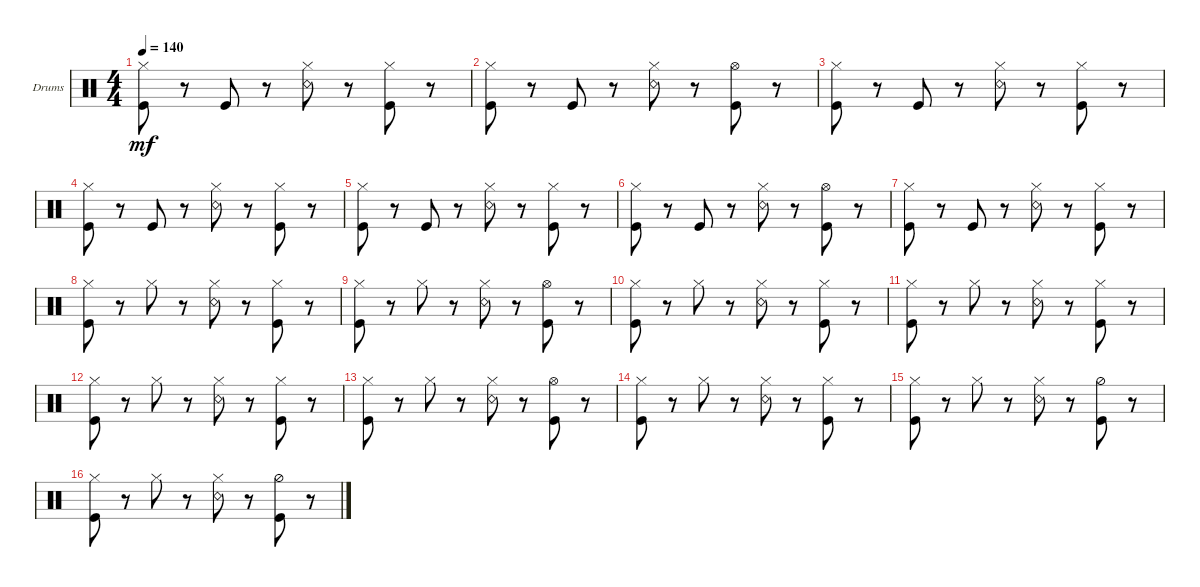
\defaultSystemsLayout 4
\bracketExtendMode groupsimilarinstruments
\firstSystemTrackNameOrientation horizontal
\otherSystemsTrackNameOrientation horizontal
\track ("Drumkit" "Drums") {instrument percussion}
\staff {score}
\articulation defaults
\ts (4 4)
\tempo 140
\clef neutral
\ks c
("Kick (hit)" "Hi-Hat (closed)").8{dy mf} r.8 "Kick (hit)".8 r.8 ("Hi-Hat (closed)" "Snare (rim shot)").8 r.8 ("Hi-Hat (closed)" "Kick (hit)").8 r.8 |
("Hi-Hat (closed)" "Kick (hit)").8 r.8 "Kick (hit)".8 r.8 ("Hi-Hat (closed)" "Snare (rim shot)").8 r.8 ("Hi-Hat (open)" "Kick (hit)").8 r.8 |
("Kick (hit)" "Hi-Hat (closed)").8 r.8 "Kick (hit)".8 r.8 ("Hi-Hat (closed)" "Snare (rim shot)").8 r.8 ("Hi-Hat (closed)" "Kick (hit)").8 r.8 |
("Hi-Hat (closed)" "Kick (hit)").8 r.8 "Kick (hit)".8 r.8 ("Hi-Hat (closed)" "Snare (rim shot)").8 r.8 ("Hi-Hat (closed)" "Kick (hit)").8 r.8 |
("Kick (hit)" "Hi-Hat (closed)").8 r.8 "Kick (hit)".8 r.8 ("Hi-Hat (closed)" "Snare (rim shot)").8 r.8 ("Hi-Hat (closed)" "Kick (hit)").8 r.8 |
("Hi-Hat (closed)" "Kick (hit)").8 r.8 "Kick (hit)".8 r.8 ("Hi-Hat (closed)" "Snare (rim shot)").8 r.8 ("Hi-Hat (open)" "Kick (hit)").8 r.8 |
("Kick (hit)" "Hi-Hat (closed)").8 r.8 "Kick (hit)".8 r.8 ("Hi-Hat (closed)" "Snare (rim shot)").8 r.8 ("Hi-Hat (closed)" "Kick (hit)").8 r.8 |
("Kick (hit)" "Hi-Hat (closed)").8 r.8 "Hi-Hat (closed)".8 r.8 ("Hi-Hat (closed)" "Snare (rim shot)").8 r.8 ("Hi-Hat (closed)" "Kick (hit)").8 r.8 |
("Hi-Hat (closed)" "Kick (hit)").8 r.8 "Hi-Hat (closed)".8 r.8 ("Hi-Hat (closed)" "Snare (rim shot)").8 r.8 ("Hi-Hat (open)" "Kick (hit)").8 r.8 |
("Kick (hit)" "Hi-Hat (closed)").8 r.8 "Hi-Hat (closed)".8 r.8 ("Hi-Hat (closed)" "Snare (rim shot)").8 r.8 ("Hi-Hat (closed)" "Kick (hit)").8 r.8 |
("Hi-Hat (closed)" "Kick (hit)").8 r.8 "Hi-Hat (closed)".8 r.8 ("Hi-Hat (closed)" "Snare (rim shot)").8 r.8 ("Hi-Hat (closed)" "Kick (hit)").8 r.8 |
("Kick (hit)" "Hi-Hat (closed)").8 r.8 "Hi-Hat (closed)".8 r.8 ("Hi-Hat (closed)" "Snare (rim shot)").8 r.8 ("Hi-Hat (closed)" "Kick (hit)").8 r.8 |
("Hi-Hat (closed)" "Kick (hit)").8 r.8 "Hi-Hat (closed)".8 r.8 ("Hi-Hat (closed)" "Snare (rim shot)").8 r.8 ("Hi-Hat (open)" "Kick (hit)").8 r.8 |
("Kick (hit)" "Hi-Hat (closed)").8 r.8 "Hi-Hat (closed)".8 r.8 ("Hi-Hat (closed)" "Snare (rim shot)").8 r.8 ("Hi-Hat (closed)" "Kick (hit)").8 r.8 |
("Hi-Hat (closed)" "Kick (hit)").8 r.8 "Hi-Hat (closed)".8 r.8 ("Hi-Hat (closed)" "Snare (rim shot)").8 r.8 ("Hi-Hat (half)" "Kick (hit)").8 r.8 |
("Hi-Hat (closed)" "Kick (hit)").8 r.8 "Hi-Hat (closed)".8 r.8 ("Hi-Hat (closed)" "Snare (rim shot)").8 r.8 ("Hi-Hat (half)" "Kick (hit)").8 r.8
